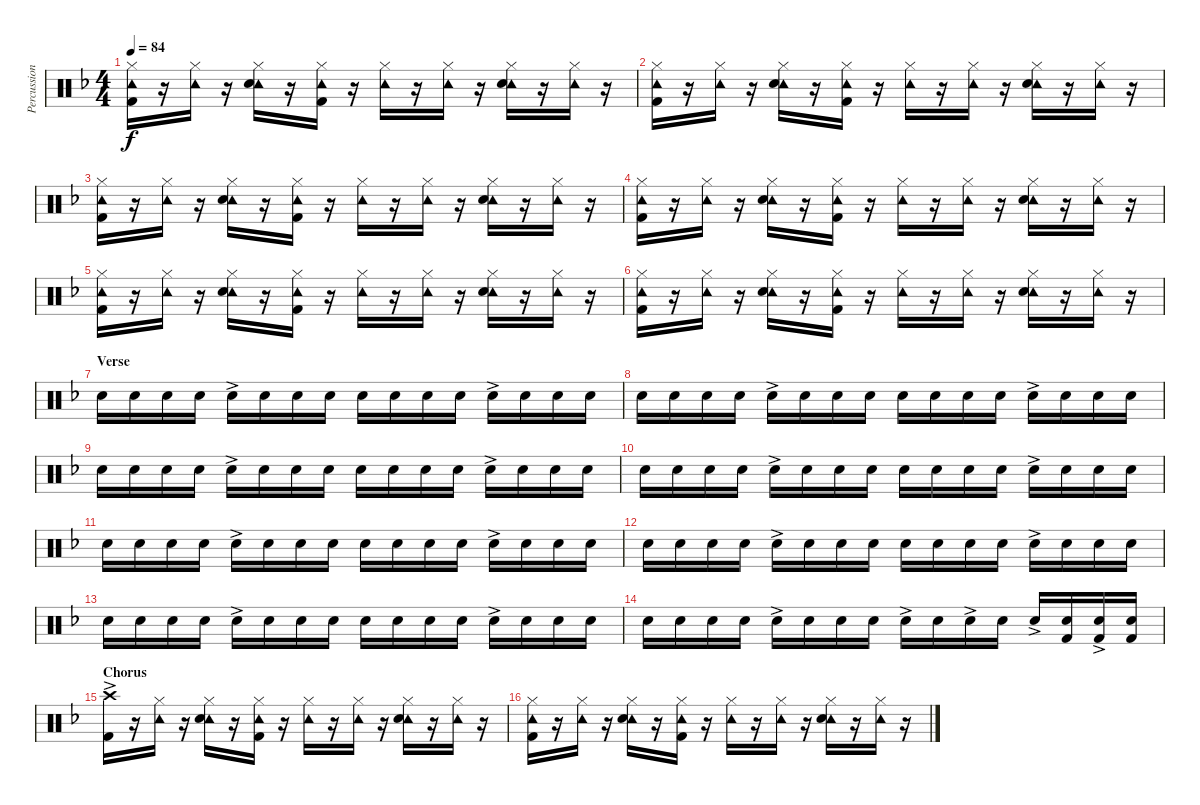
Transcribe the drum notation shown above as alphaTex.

\track ("Percussion" "Percussion") {instrument percussion}
\staff {score}
\articulation defaults
\ts (4 4)
\tempo 84
\clef neutral
\ks f
("Hi-Hat (closed)" "Tambourine (hit)" "Kick (hit) 2").16{dy f} r.16 ("Hi-Hat (closed)" "Tambourine (hit)").16 r.16 ("Hi-Hat (closed)" "Tambourine (hit)" "Snare (hit) 2").16 r.16 ("Hi-Hat (closed)" "Tambourine (hit)" "Kick (hit) 2").16 r.16 ("Hi-Hat (closed)" "Tambourine (hit)").16 r.16 ("Hi-Hat (closed)" "Tambourine (hit)").16 r.16 ("Hi-Hat (closed)" "Tambourine (hit)" "Snare (hit) 2").16 r.16 ("Hi-Hat (closed)" "Tambourine (hit)").16 r.16 |
("Hi-Hat (closed)" "Tambourine (hit)" "Kick (hit) 2").16 r.16 ("Hi-Hat (closed)" "Tambourine (hit)").16 r.16 ("Hi-Hat (closed)" "Tambourine (hit)" "Snare (hit) 2").16 r.16 ("Hi-Hat (closed)" "Tambourine (hit)" "Kick (hit) 2").16 r.16 ("Hi-Hat (closed)" "Tambourine (hit)").16 r.16 ("Hi-Hat (closed)" "Tambourine (hit)").16 r.16 ("Hi-Hat (closed)" "Tambourine (hit)" "Snare (hit) 2").16 r.16 ("Hi-Hat (closed)" "Tambourine (hit)").16 r.16 |
("Hi-Hat (closed)" "Tambourine (hit)" "Kick (hit) 2").16 r.16 ("Hi-Hat (closed)" "Tambourine (hit)").16 r.16 ("Hi-Hat (closed)" "Tambourine (hit)" "Snare (hit) 2").16 r.16 ("Hi-Hat (closed)" "Tambourine (hit)" "Kick (hit) 2").16 r.16 ("Hi-Hat (closed)" "Tambourine (hit)").16 r.16 ("Hi-Hat (closed)" "Tambourine (hit)").16 r.16 ("Hi-Hat (closed)" "Tambourine (hit)" "Snare (hit) 2").16 r.16 ("Hi-Hat (closed)" "Tambourine (hit)").16 r.16 |
("Hi-Hat (closed)" "Tambourine (hit)" "Kick (hit) 2").16 r.16 ("Hi-Hat (closed)" "Tambourine (hit)").16 r.16 ("Hi-Hat (closed)" "Tambourine (hit)" "Snare (hit) 2").16 r.16 ("Hi-Hat (closed)" "Tambourine (hit)" "Kick (hit) 2").16 r.16 ("Hi-Hat (closed)" "Tambourine (hit)").16 r.16 ("Hi-Hat (closed)" "Tambourine (hit)").16 r.16 ("Hi-Hat (closed)" "Tambourine (hit)" "Snare (hit) 2").16 r.16 ("Hi-Hat (closed)" "Tambourine (hit)").16 r.16 |
("Hi-Hat (closed)" "Tambourine (hit)" "Kick (hit) 2").16 r.16 ("Hi-Hat (closed)" "Tambourine (hit)").16 r.16 ("Hi-Hat (closed)" "Tambourine (hit)" "Snare (hit) 2").16 r.16 ("Hi-Hat (closed)" "Tambourine (hit)" "Kick (hit) 2").16 r.16 ("Hi-Hat (closed)" "Tambourine (hit)").16 r.16 ("Hi-Hat (closed)" "Tambourine (hit)").16 r.16 ("Hi-Hat (closed)" "Tambourine (hit)" "Snare (hit) 2").16 r.16 ("Hi-Hat (closed)" "Tambourine (hit)").16 r.16 |
("Hi-Hat (closed)" "Tambourine (hit)" "Kick (hit) 2").16 r.16 ("Hi-Hat (closed)" "Tambourine (hit)").16 r.16 ("Hi-Hat (closed)" "Tambourine (hit)" "Snare (hit) 2").16 r.16 ("Hi-Hat (closed)" "Tambourine (hit)" "Kick (hit) 2").16 r.16 ("Hi-Hat (closed)" "Tambourine (hit)").16 r.16 ("Hi-Hat (closed)" "Tambourine (hit)").16 r.16 ("Hi-Hat (closed)" "Tambourine (hit)" "Snare (hit) 2").16 r.16 ("Hi-Hat (closed)" "Tambourine (hit)").16 r.16 |
\section ("" "Verse")
"Snare (hit) 2".16{volume 2} "Snare (hit) 2".16 "Snare (hit) 2".16 "Snare (hit) 2".16 "Snare (hit) 2"{ac}.16 "Snare (hit) 2".16 "Snare (hit) 2".16 "Snare (hit) 2".16 "Snare (hit) 2".16 "Snare (hit) 2".16 "Snare (hit) 2".16 "Snare (hit) 2".16 "Snare (hit) 2"{ac}.16 "Snare (hit) 2".16 "Snare (hit) 2".16 "Snare (hit) 2".16 |
"Snare (hit) 2".16 "Snare (hit) 2".16 "Snare (hit) 2".16 "Snare (hit) 2".16 "Snare (hit) 2"{ac}.16 "Snare (hit) 2".16 "Snare (hit) 2".16 "Snare (hit) 2".16 "Snare (hit) 2".16 "Snare (hit) 2".16 "Snare (hit) 2".16 "Snare (hit) 2".16 "Snare (hit) 2"{ac}.16 "Snare (hit) 2".16 "Snare (hit) 2".16 "Snare (hit) 2".16 |
"Snare (hit) 2".16 "Snare (hit) 2".16 "Snare (hit) 2".16 "Snare (hit) 2".16 "Snare (hit) 2"{ac}.16 "Snare (hit) 2".16 "Snare (hit) 2".16 "Snare (hit) 2".16 "Snare (hit) 2".16 "Snare (hit) 2".16 "Snare (hit) 2".16 "Snare (hit) 2".16 "Snare (hit) 2"{ac}.16 "Snare (hit) 2".16 "Snare (hit) 2".16 "Snare (hit) 2".16 |
"Snare (hit) 2".16 "Snare (hit) 2".16 "Snare (hit) 2".16 "Snare (hit) 2".16 "Snare (hit) 2"{ac}.16 "Snare (hit) 2".16 "Snare (hit) 2".16 "Snare (hit) 2".16 "Snare (hit) 2".16 "Snare (hit) 2".16 "Snare (hit) 2".16 "Snare (hit) 2".16 "Snare (hit) 2"{ac}.16 "Snare (hit) 2".16 "Snare (hit) 2".16 "Snare (hit) 2".16 |
"Snare (hit) 2".16 "Snare (hit) 2".16 "Snare (hit) 2".16 "Snare (hit) 2".16 "Snare (hit) 2"{ac}.16 "Snare (hit) 2".16 "Snare (hit) 2".16 "Snare (hit) 2".16 "Snare (hit) 2".16 "Snare (hit) 2".16 "Snare (hit) 2".16 "Snare (hit) 2".16 "Snare (hit) 2"{ac}.16 "Snare (hit) 2".16 "Snare (hit) 2".16 "Snare (hit) 2".16 |
"Snare (hit) 2".16 "Snare (hit) 2".16 "Snare (hit) 2".16 "Snare (hit) 2".16 "Snare (hit) 2"{ac}.16 "Snare (hit) 2".16 "Snare (hit) 2".16 "Snare (hit) 2".16 "Snare (hit) 2".16 "Snare (hit) 2".16 "Snare (hit) 2".16 "Snare (hit) 2".16 "Snare (hit) 2"{ac}.16 "Snare (hit) 2".16 "Snare (hit) 2".16 "Snare (hit) 2".16 |
"Snare (hit) 2".16 "Snare (hit) 2".16 "Snare (hit) 2".16 "Snare (hit) 2".16 "Snare (hit) 2"{ac}.16 "Snare (hit) 2".16 "Snare (hit) 2".16 "Snare (hit) 2".16 "Snare (hit) 2".16 "Snare (hit) 2".16 "Snare (hit) 2".16 "Snare (hit) 2".16 "Snare (hit) 2"{ac}.16 "Snare (hit) 2".16 "Snare (hit) 2".16 "Snare (hit) 2".16 |
"Snare (hit) 2".16 "Snare (hit) 2".16 "Snare (hit) 2".16 "Snare (hit) 2".16 "Snare (hit) 2"{ac}.16 "Snare (hit) 2".16 "Snare (hit) 2".16 "Snare (hit) 2".16 "Snare (hit) 2"{ac}.16 "Snare (hit) 2".16 "Snare (hit) 2"{ac}.16 "Snare (hit) 2".16 "Snare (hit) 2"{ac}.16{volume 3} ("Snare (hit) 2" "Kick (hit) 2").16 ("Snare (hit) 2"{ac} "Kick (hit) 2").16 ("Snare (hit) 2" "Kick (hit) 2").16 |
\section ("" "Chorus")
("Crash high (hit)"{ac} "Kick (hit) 2").16 r.16 ("Hi-Hat (closed)" "Tambourine (hit)").16 r.16 ("Hi-Hat (closed)" "Tambourine (hit)" "Snare (hit) 2").16 r.16 ("Hi-Hat (closed)" "Tambourine (hit)" "Kick (hit) 2").16 r.16 ("Hi-Hat (closed)" "Tambourine (hit)").16 r.16 ("Hi-Hat (closed)" "Tambourine (hit)").16 r.16 ("Hi-Hat (closed)" "Tambourine (hit)" "Snare (hit) 2").16 r.16 ("Hi-Hat (closed)" "Tambourine (hit)").16 r.16 |
("Hi-Hat (closed)" "Tambourine (hit)" "Kick (hit) 2").16 r.16 ("Hi-Hat (closed)" "Tambourine (hit)").16 r.16 ("Hi-Hat (closed)" "Tambourine (hit)" "Snare (hit) 2").16 r.16 ("Hi-Hat (closed)" "Tambourine (hit)" "Kick (hit) 2").16 r.16 ("Hi-Hat (closed)" "Tambourine (hit)").16 r.16 ("Hi-Hat (closed)" "Tambourine (hit)").16 r.16 ("Hi-Hat (closed)" "Tambourine (hit)" "Snare (hit) 2").16 r.16 ("Hi-Hat (closed)" "Tambourine (hit)").16 r.16
